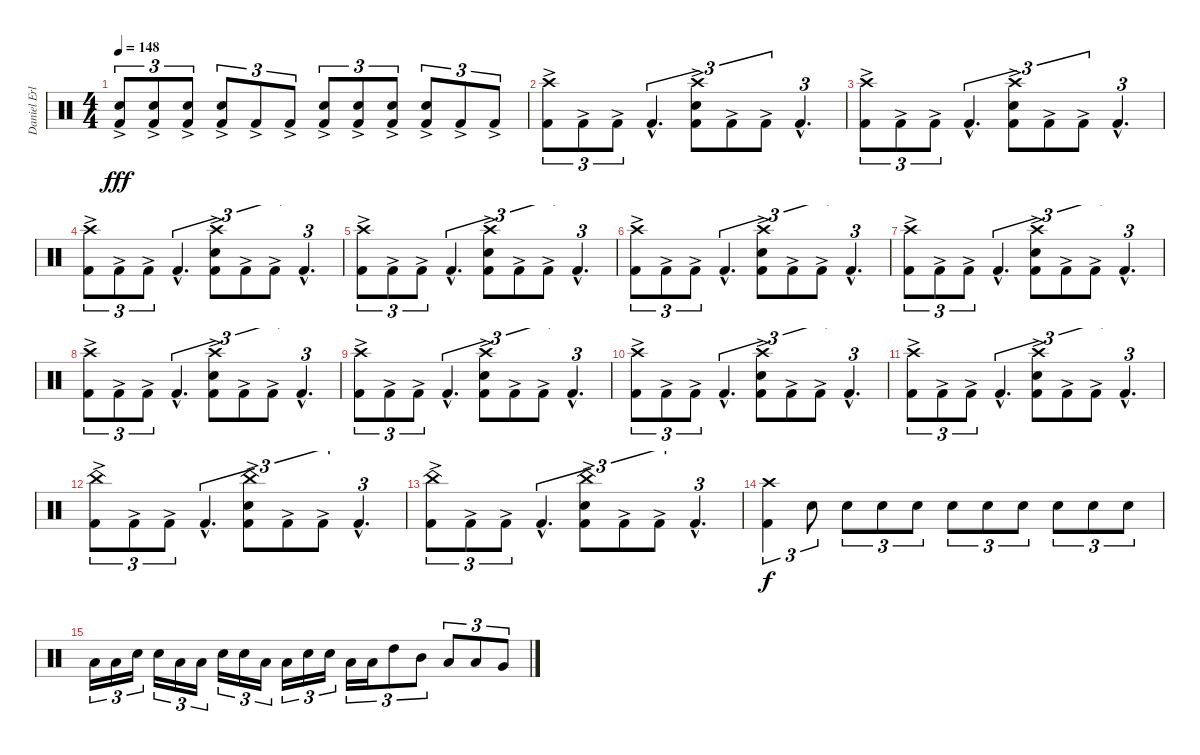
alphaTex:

\track ("Daniel Erlandsson (Drums)" "Daniel Erl") {instrument percussion}
\staff {score}
\articulation defaults
\ts (4 4)
\tempo 148
\clef neutral
\ks c
("Kick (hit) 2"{ac} "Snare (hit) 2").8{tu (3 2) dy fff} ("Kick (hit) 2"{ac} "Snare (hit) 2").8{tu (3 2)} ("Kick (hit) 2"{ac} "Snare (hit) 2").8{tu (3 2)} ("Kick (hit) 2"{ac} "Snare (hit) 2").8{tu (3 2)} "Kick (hit) 2"{ac}.8{tu (3 2)} "Kick (hit) 2"{ac}.8{tu (3 2)} ("Kick (hit) 2"{ac} "Snare (hit) 2").8{tu (3 2)} ("Kick (hit) 2"{ac} "Snare (hit) 2").8{tu (3 2)} ("Kick (hit) 2"{ac} "Snare (hit) 2").8{tu (3 2)} ("Kick (hit) 2"{ac} "Snare (hit) 2").8{tu (3 2)} "Kick (hit) 2"{ac}.8{tu (3 2)} "Kick (hit) 2"{ac}.8{tu (3 2)} |
("Kick (hit) 2"{ac} "Crash high (hit)").8{tu (3 2)} "Kick (hit) 2"{ac}.8{tu (3 2)} "Kick (hit) 2"{ac}.8{tu (3 2)} "Kick (hit) 2"{hac}.4{d tu (3 2)} ("Crash high (hit)" "Kick (hit) 2"{ac} "Snare (hit) 2").8{tu (3 2)} "Kick (hit) 2"{ac}.8{tu (3 2)} "Kick (hit) 2"{ac}.8{tu (3 2)} "Kick (hit) 2"{hac}.4{d tu (3 2)} |
("Kick (hit) 2"{ac} "Crash high (hit)").8{tu (3 2)} "Kick (hit) 2"{ac}.8{tu (3 2)} "Kick (hit) 2"{ac}.8{tu (3 2)} "Kick (hit) 2"{hac}.4{d tu (3 2)} ("Crash high (hit)" "Kick (hit) 2"{ac} "Snare (hit) 2").8{tu (3 2)} "Kick (hit) 2"{ac}.8{tu (3 2)} "Kick (hit) 2"{ac}.8{tu (3 2)} "Kick (hit) 2"{hac}.4{d tu (3 2)} |
("Kick (hit) 2"{ac} "Crash high (hit)").8{tu (3 2)} "Kick (hit) 2"{ac}.8{tu (3 2)} "Kick (hit) 2"{ac}.8{tu (3 2)} "Kick (hit) 2"{hac}.4{d tu (3 2)} ("Crash high (hit)" "Kick (hit) 2"{ac} "Snare (hit) 2").8{tu (3 2)} "Kick (hit) 2"{ac}.8{tu (3 2)} "Kick (hit) 2"{ac}.8{tu (3 2)} "Kick (hit) 2"{hac}.4{d tu (3 2)} |
("Kick (hit) 2"{ac} "Crash high (hit)").8{tu (3 2)} "Kick (hit) 2"{ac}.8{tu (3 2)} "Kick (hit) 2"{ac}.8{tu (3 2)} "Kick (hit) 2"{hac}.4{d tu (3 2)} ("Crash high (hit)" "Kick (hit) 2"{ac} "Snare (hit) 2").8{tu (3 2)} "Kick (hit) 2"{ac}.8{tu (3 2)} "Kick (hit) 2"{ac}.8{tu (3 2)} "Kick (hit) 2"{hac}.4{d tu (3 2)} |
("Kick (hit) 2"{ac} "Crash high (hit)").8{tu (3 2)} "Kick (hit) 2"{ac}.8{tu (3 2)} "Kick (hit) 2"{ac}.8{tu (3 2)} "Kick (hit) 2"{hac}.4{d tu (3 2)} ("Crash high (hit)" "Kick (hit) 2"{ac} "Snare (hit) 2").8{tu (3 2)} "Kick (hit) 2"{ac}.8{tu (3 2)} "Kick (hit) 2"{ac}.8{tu (3 2)} "Kick (hit) 2"{hac}.4{d tu (3 2)} |
("Kick (hit) 2"{ac} "Crash high (hit)").8{tu (3 2)} "Kick (hit) 2"{ac}.8{tu (3 2)} "Kick (hit) 2"{ac}.8{tu (3 2)} "Kick (hit) 2"{hac}.4{d tu (3 2)} ("Crash high (hit)" "Kick (hit) 2"{ac} "Snare (hit) 2").8{tu (3 2)} "Kick (hit) 2"{ac}.8{tu (3 2)} "Kick (hit) 2"{ac}.8{tu (3 2)} "Kick (hit) 2"{hac}.4{d tu (3 2)} |
("Kick (hit) 2"{ac} "Crash high (hit)").8{tu (3 2)} "Kick (hit) 2"{ac}.8{tu (3 2)} "Kick (hit) 2"{ac}.8{tu (3 2)} "Kick (hit) 2"{hac}.4{d tu (3 2)} ("Crash high (hit)" "Kick (hit) 2"{ac} "Snare (hit) 2").8{tu (3 2)} "Kick (hit) 2"{ac}.8{tu (3 2)} "Kick (hit) 2"{ac}.8{tu (3 2)} "Kick (hit) 2"{hac}.4{d tu (3 2)} |
("Kick (hit) 2"{ac} "Crash high (hit)").8{tu (3 2)} "Kick (hit) 2"{ac}.8{tu (3 2)} "Kick (hit) 2"{ac}.8{tu (3 2)} "Kick (hit) 2"{hac}.4{d tu (3 2)} ("Crash high (hit)" "Kick (hit) 2"{ac} "Snare (hit) 2").8{tu (3 2)} "Kick (hit) 2"{ac}.8{tu (3 2)} "Kick (hit) 2"{ac}.8{tu (3 2)} "Kick (hit) 2"{hac}.4{d tu (3 2)} |
("Kick (hit) 2"{ac} "Crash high (hit)").8{tu (3 2)} "Kick (hit) 2"{ac}.8{tu (3 2)} "Kick (hit) 2"{ac}.8{tu (3 2)} "Kick (hit) 2"{hac}.4{d tu (3 2)} ("Crash high (hit)" "Kick (hit) 2"{ac} "Snare (hit) 2").8{tu (3 2)} "Kick (hit) 2"{ac}.8{tu (3 2)} "Kick (hit) 2"{ac}.8{tu (3 2)} "Kick (hit) 2"{hac}.4{d tu (3 2)} |
("Kick (hit) 2"{ac} "Crash high (hit)").8{tu (3 2)} "Kick (hit) 2"{ac}.8{tu (3 2)} "Kick (hit) 2"{ac}.8{tu (3 2)} "Kick (hit) 2"{hac}.4{d tu (3 2)} ("Crash high (hit)" "Kick (hit) 2"{ac} "Snare (hit) 2").8{tu (3 2)} "Kick (hit) 2"{ac}.8{tu (3 2)} "Kick (hit) 2"{ac}.8{tu (3 2)} "Kick (hit) 2"{hac}.4{d tu (3 2)} |
("Kick (hit) 2"{ac} "China (hit)"{ac}).8{tu (3 2)} "Kick (hit) 2"{ac}.8{tu (3 2)} "Kick (hit) 2"{ac}.8{tu (3 2)} "Kick (hit) 2"{hac}.4{d tu (3 2)} ("China (hit)"{ac} "Kick (hit) 2"{ac} "Snare (hit) 2").8{tu (3 2)} "Kick (hit) 2"{ac}.8{tu (3 2)} "Kick (hit) 2"{ac}.8{tu (3 2)} "Kick (hit) 2"{hac}.4{d tu (3 2)} |
("Kick (hit) 2"{ac} "China (hit)"{ac}).8{tu (3 2)} "Kick (hit) 2"{ac}.8{tu (3 2)} "Kick (hit) 2"{ac}.8{tu (3 2)} "Kick (hit) 2"{hac}.4{d tu (3 2)} ("China (hit)"{ac} "Kick (hit) 2"{ac} "Snare (hit) 2").8{tu (3 2)} "Kick (hit) 2"{ac}.8{tu (3 2)} "Kick (hit) 2"{ac}.8{tu (3 2)} "Kick (hit) 2"{hac}.4{d tu (3 2)} |
("Crash high (hit)" "Kick (hit) 2").4{tu (3 2) dy f} "Snare (hit) 2".8{tu (3 2)} "Snare (hit) 2".8{tu (3 2)} "Snare (hit) 2".8{tu (3 2)} "Snare (hit) 2".8{tu (3 2)} "Snare (hit) 2".8{tu (3 2)} "Snare (hit) 2".8{tu (3 2)} "Snare (hit) 2".8{tu (3 2)} "Snare (hit) 2".8{tu (3 2)} "Snare (hit) 2".8{tu (3 2)} "Snare (hit) 2".8{tu (3 2)} |
"Low Tom (hit)".16{tu (3 2)} "Low Tom (hit)".16{tu (3 2)} "Snare (hit) 2".16{tu (3 2)} "Snare (hit) 2".16{tu (3 2)} "Low Tom (hit)".16{tu (3 2)} "Low Tom (hit)".16{tu (3 2)} "Snare (hit) 2".16{tu (3 2)} "Snare (hit) 2".16{tu (3 2)} "Low Tom (hit)".16{tu (3 2)} "Low Tom (hit)".16{tu (3 2)} "Snare (hit) 2".16{tu (3 2)} "Snare (hit) 2".16{tu (3 2)} "Low Tom (hit)".16{tu (3 2)} "Low Tom (hit)".16{tu (3 2)} "High Tom (hit)".8{tu (3 2)} "Mid Tom (hit)".8{tu (3 2)} "Low Tom (hit)".8{tu (3 2)} "Low Tom (hit)".8{tu (3 2)} "Very Low Tom (hit)".8{tu (3 2)}
